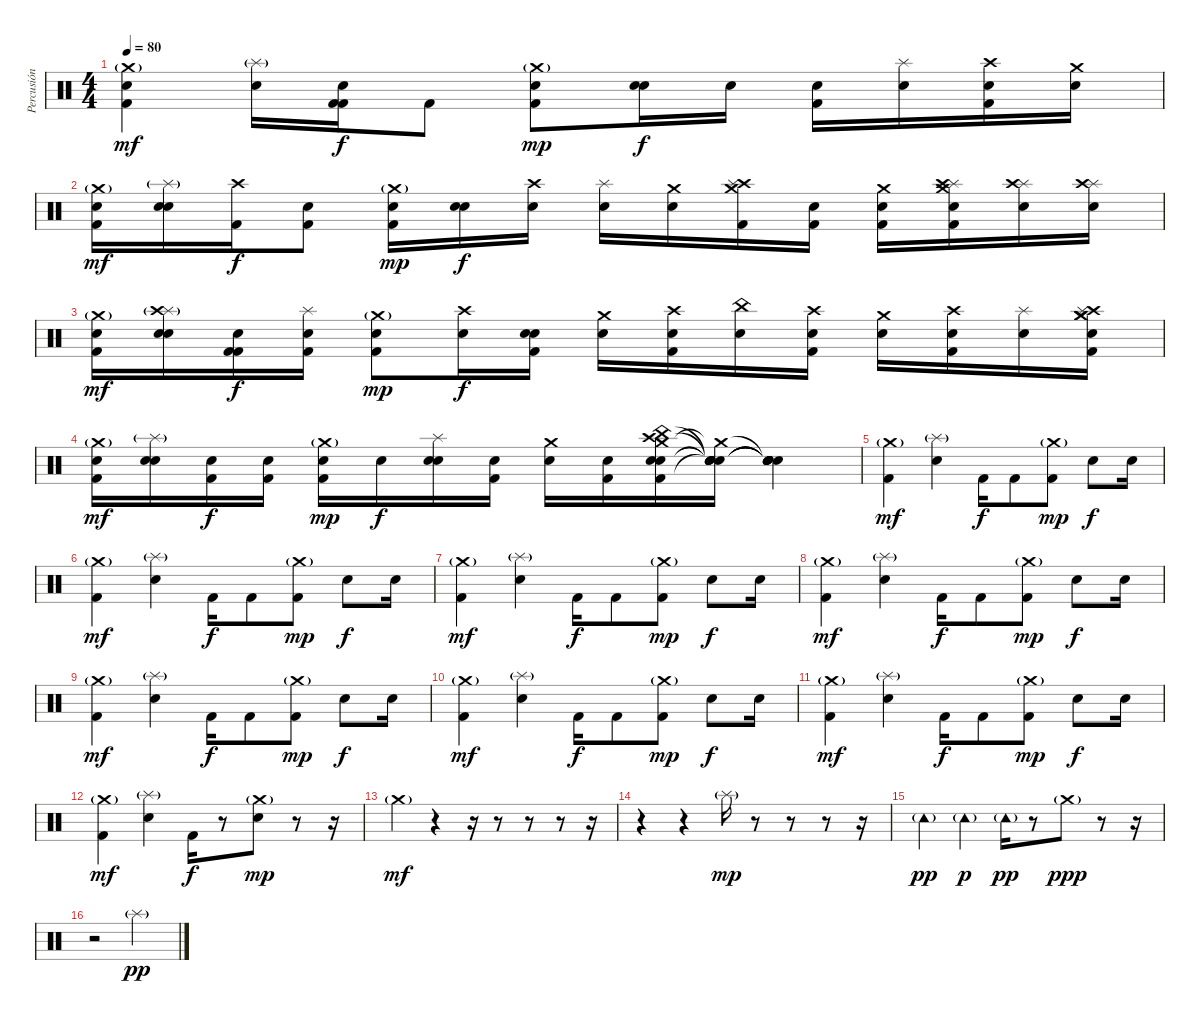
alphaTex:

\track ("Percusión" "Percusión") {instrument percussion}
\staff {score}
\articulation defaults
\ts (4 4)
\tempo 80
\clef neutral
\ks c
("Crash medium (hit)"{g} "Snare (hit) 2" "Kick (hit) 2").4{dy mf} ("Splash (hit)"{g} "Snare (hit) 2").16 ("Snare (hit) 2" "Kick (hit) 2" "Kick (hit) 2").16{dy f} "Kick (hit) 2".8 ("Crash medium (hit)"{g} "Snare (hit) 2" "Kick (hit) 2").8{dy mp} ("Snare (hit) 2" "Snare (hit) 2").16{dy f} "Snare (hit)"{x}.16 ("Kick (hit) 2" "Snare (hit) 2").16 ("Snare (hit) 2" "Splash (hit)").16 ("Kick (hit) 2" "Snare (hit) 2" "Crash high (hit)").16 ("Snare (hit) 2" "Crash medium (hit)").16 |
("Crash medium (hit)"{g} "Snare (hit) 2" "Kick (hit) 2").16{dy mf} ("Splash (hit)"{g} "Snare (hit) 2" "Snare (hit) 2").16 ("Kick (hit) 2" "Crash high (hit)").16{dy f} ("Snare (hit) 2" "Kick (hit) 2").8 ("Crash medium (hit)"{g} "Snare (hit) 2" "Kick (hit) 2").16{dy mp} ("Snare (hit) 2" "Snare (hit) 2").16{dy f} ("Snare (hit)"{x} "Crash high (hit)").16 ("Splash (hit)" "Snare (hit) 2").16 ("Snare (hit) 2" "Crash medium (hit)").16 ("Crash medium (hit)" "Kick (hit) 2" "Crash high (hit)" "Splash (hit)").16 ("Snare (hit) 2" "Kick (hit) 2").16 ("Snare (hit) 2" "Kick (hit) 2" "Crash medium (hit)").16 ("Snare (hit) 2" "Kick (hit) 2" "Splash (hit)" "Crash high (hit)" "Crash medium (hit)").16 ("Splash (hit)" "Snare (hit) 2" "Crash high (hit)").16 ("Splash (hit)" "Snare (hit) 2" "Crash high (hit)").16 |
("Crash medium (hit)"{g} "Snare (hit) 2" "Kick (hit) 2").16{dy mf} ("Splash (hit)"{g} "Snare (hit) 2" "Snare (hit) 2" "Crash high (hit)").16 ("Snare (hit) 2" "Kick (hit) 2" "Kick (hit) 2").16{dy f} ("Snare (hit) 2" "Kick (hit) 2" "Splash (hit)").16 ("Crash medium (hit)"{g} "Snare (hit) 2" "Kick (hit) 2").8{dy mp} ("Snare (hit) 2" "Crash high (hit)").16{dy f} ("Kick (hit) 2" "Snare (hit) 2" "Snare (hit)"{x}).16 ("Snare (hit) 2" "Crash medium (hit)").16 ("Kick (hit) 2" "Snare (hit) 2" "Crash high (hit)").16 ("Snare (hit) 2" "China (hit)").16 ("Kick (hit) 2" "Snare (hit) 2" "Crash high (hit)").16 ("Snare (hit) 2" "Crash medium (hit)").16 ("Kick (hit) 2" "Snare (hit) 2" "Crash high (hit)").16 ("Snare (hit) 2" "Splash (hit)").16 ("Crash high (hit)" "Crash medium (hit)" "Crash medium (hit)" "Snare (hit) 2" "Splash (hit)" "Kick (hit) 2").16 |
("Crash medium (hit)"{g} "Snare (hit) 2" "Kick (hit) 2").16{dy mf} ("Splash (hit)"{g} "Snare (hit) 2" "Snare (hit) 2").16 ("Snare (hit) 2" "Kick (hit) 2").16{dy f} ("Snare (hit) 2" "Kick (hit) 2").16 ("Crash medium (hit)"{g} "Snare (hit) 2" "Kick (hit) 2").16{dy mp} "Snare (hit) 2".16{dy f} ("Snare (hit) 2" "Snare (hit)"{x} "Splash (hit)").16 ("Kick (hit) 2" "Snare (hit) 2").16 ("Crash medium (hit)" "Snare (hit) 2").16 ("Kick (hit) 2" "Snare (hit) 2").16 ("Electric Snare (hit)" "Crash medium (hit)" "Kick (hit) 2" "Snare (hit) 2" "China (hit)" "Crash high (hit)").16 ("Electric Snare (hit)"{t} "Crash medium (hit)"{t} "Snare (hit)"{t} "Snare (hit)"{t} "Snare (hit)"{t} "Snare (hit)"{t}).16 ("Snare (hit)"{t} "Snare (hit)"{t} "Snare (hit)"{t} "Snare (hit)"{t} "Snare (hit)"{t} "Snare (hit)"{t}).4 |
("Crash medium (hit)"{g} "Kick (hit) 2").4{dy mf} ("Splash (hit)"{g} "Snare (hit) 2").4 "Kick (hit) 2".16{dy f} "Kick (hit) 2".8 ("Crash medium (hit)"{g} "Kick (hit) 2").8{dy mp} "Snare (hit) 2".8{dy f} "Snare (hit)"{x}.16 |
("Crash medium (hit)"{g} "Kick (hit) 2").4{dy mf} ("Splash (hit)"{g} "Snare (hit) 2").4 "Kick (hit) 2".16{dy f} "Kick (hit) 2".8 ("Crash medium (hit)"{g} "Kick (hit) 2").8{dy mp} "Snare (hit) 2".8{dy f} "Snare (hit)"{x}.16 |
("Crash medium (hit)"{g} "Kick (hit) 2").4{dy mf} ("Splash (hit)"{g} "Snare (hit) 2").4 "Kick (hit) 2".16{dy f} "Kick (hit) 2".8 ("Crash medium (hit)"{g} "Kick (hit) 2").8{dy mp} "Snare (hit) 2".8{dy f} "Snare (hit)"{x}.16 |
("Crash medium (hit)"{g} "Kick (hit) 2").4{dy mf} ("Splash (hit)"{g} "Snare (hit) 2").4 "Kick (hit) 2".16{dy f} "Kick (hit) 2".8 ("Crash medium (hit)"{g} "Kick (hit) 2").8{dy mp} "Snare (hit) 2".8{dy f} "Snare (hit)"{x}.16 |
("Crash medium (hit)"{g} "Kick (hit) 2").4{dy mf} ("Splash (hit)"{g} "Snare (hit) 2").4 "Kick (hit) 2".16{dy f} "Kick (hit) 2".8 ("Crash medium (hit)"{g} "Kick (hit) 2").8{dy mp} "Snare (hit) 2".8{dy f} "Snare (hit)"{x}.16 |
("Crash medium (hit)"{g} "Kick (hit) 2").4{dy mf} ("Splash (hit)"{g} "Snare (hit) 2").4 "Kick (hit) 2".16{dy f} "Kick (hit) 2".8 ("Crash medium (hit)"{g} "Kick (hit) 2").8{dy mp} "Snare (hit) 2".8{dy f} "Snare (hit)"{x}.16 |
("Crash medium (hit)"{g} "Kick (hit) 2").4{dy mf} ("Splash (hit)"{g} "Snare (hit) 2").4 "Kick (hit) 2".16{dy f} "Kick (hit) 2".8 ("Crash medium (hit)"{g} "Kick (hit) 2").8{dy mp} "Snare (hit) 2".8{dy f} "Snare (hit)"{x}.16 |
("Crash medium (hit)"{g} "Kick (hit) 2").4{dy mf} ("Splash (hit)"{g} "Snare (hit) 2").4 "Kick (hit) 2".16{dy f} r.8 ("Crash medium (hit)"{g} "Snare (hit) 2").8{dy mp} r.8 r.16 |
"Crash medium (hit)"{g}.4{dy mf} r.4 r.16 r.8 r.8 r.8 r.16 |
r.4 r.4 "Splash (hit)"{g}.16{dy mp} r.8 r.8 r.8 r.16 |
"Tambourine (hit)"{tr (54 64) g}.4{dy pp} "Tambourine (hit)"{tr (54 64) g}.4{dy p} "Tambourine (hit)"{tr (54 64) g}.16{dy pp} r.8 "Crash medium (hit)"{tr (57 64) g}.8{dy ppp} r.8 r.16 |
r.2 "Splash (hit)"{g}.2{dy pp}
